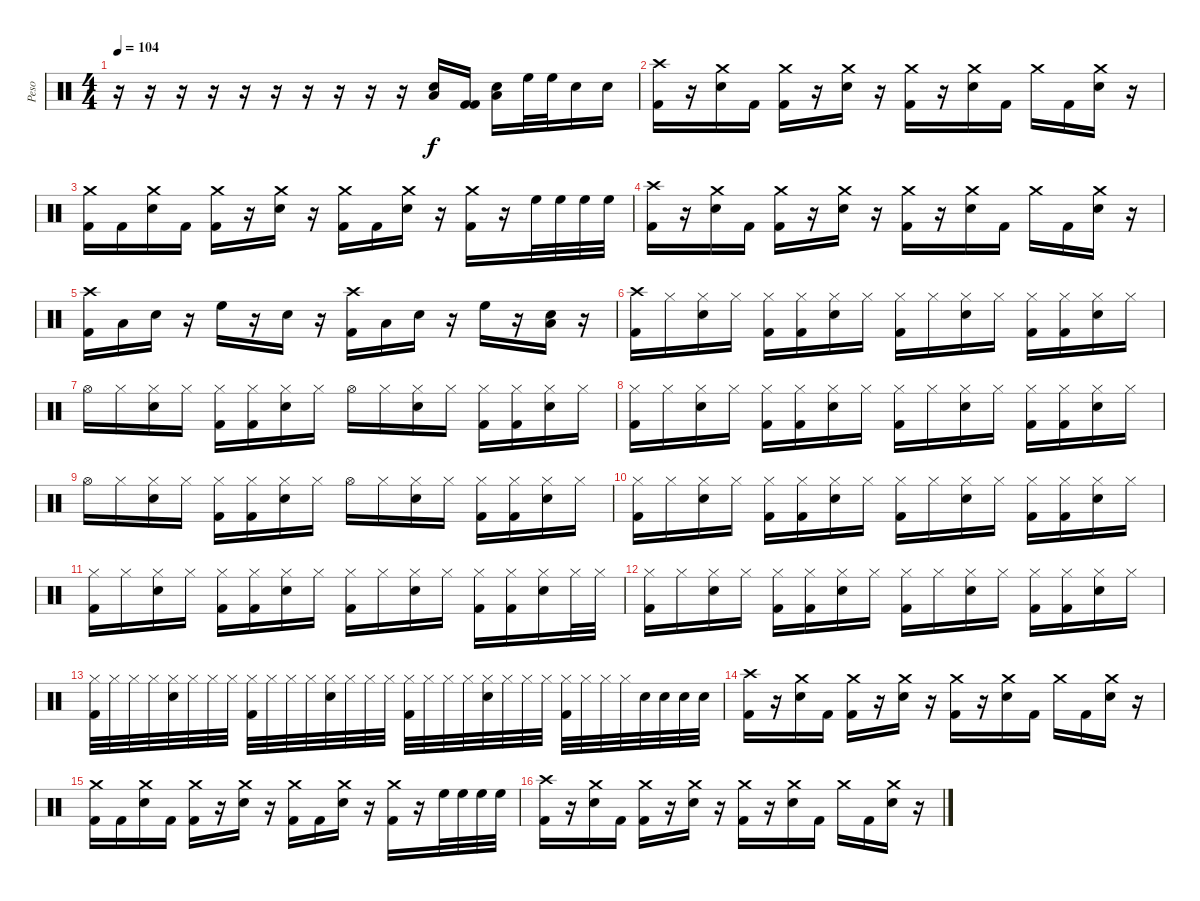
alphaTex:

\track ("Peso" "Peso") {instrument percussion}
\staff {score}
\articulation defaults
\ts (4 4)
\tempo 104
\clef neutral
\ks c
r.16{dy f} r.16 r.16 r.16 r.16 r.16 r.16 r.16 r.16 r.16 ("Low Floor Tom (hit)" "Snare (hit) 2").16 ("Kick (hit) 2" "Kick (hit) 2").16 ("Low Floor Tom (hit)" "Snare (hit) 2").16 "High Floor Tom (hit)".32 "High Floor Tom (hit)".32 "Snare (hit) 2".16 "Snare (hit) 2".16 |
("Crash high (hit)" "Kick (hit) 2").16 r.16 ("Crash medium (hit)" "Snare (hit) 2").16 "Kick (hit) 2".16 ("Crash medium (hit)" "Kick (hit) 2").16 r.16 ("Crash medium (hit)" "Snare (hit) 2").16 r.16 ("Crash medium (hit)" "Kick (hit) 2").16 r.16 ("Crash medium (hit)" "Snare (hit) 2").16 "Kick (hit) 2".16 "Crash medium (hit)".16 "Kick (hit) 2".16 ("Crash medium (hit)" "Snare (hit) 2").16 r.16 |
("Crash medium (hit)" "Kick (hit) 2").16 "Kick (hit) 2".16 ("Crash medium (hit)" "Snare (hit) 2").16 "Kick (hit) 2".16 ("Crash medium (hit)" "Kick (hit) 2").16 r.16 ("Crash medium (hit)" "Snare (hit) 2").16 r.16 ("Crash medium (hit)" "Kick (hit) 2").16 "Kick (hit) 2".16 ("Crash medium (hit)" "Snare (hit) 2").16 r.16 ("Crash medium (hit)" "Kick (hit) 2").16 r.16 "High Floor Tom (hit)".32 "High Floor Tom (hit)".32 "High Floor Tom (hit)".32 "High Floor Tom (hit)".32 |
("Crash high (hit)" "Kick (hit) 2").16 r.16 ("Crash medium (hit)" "Snare (hit) 2").16 "Kick (hit) 2".16 ("Crash medium (hit)" "Kick (hit) 2").16 r.16 ("Crash medium (hit)" "Snare (hit) 2").16 r.16 ("Crash medium (hit)" "Kick (hit) 2").16 r.16 ("Crash medium (hit)" "Snare (hit) 2").16 "Kick (hit) 2".16 "Crash medium (hit)".16 "Kick (hit) 2".16 ("Crash medium (hit)" "Snare (hit) 2").16 r.16 |
("Crash high (hit)" "Kick (hit) 2").16 "Low Floor Tom (hit)".16 "Snare (hit) 2".16 r.16 "High Floor Tom (hit)".16 r.16 "Snare (hit) 2".16 r.16 ("Crash high (hit)" "Kick (hit) 2").16 "Low Floor Tom (hit)".16 "Snare (hit) 2".16 r.16 "High Floor Tom (hit)".16 r.16 ("Low Floor Tom (hit)" "Snare (hit) 2").16 r.16 |
("Crash high (hit)" "Kick (hit) 2").16 "Hi-Hat (closed)".16 ("Hi-Hat (closed)" "Snare (hit) 2").16 "Hi-Hat (closed)".16 ("Hi-Hat (closed)" "Kick (hit) 2").16 ("Hi-Hat (closed)" "Kick (hit) 2").16 ("Hi-Hat (closed)" "Snare (hit) 2").16 "Hi-Hat (closed)".16 ("Hi-Hat (closed)" "Kick (hit) 2").16 "Hi-Hat (closed)".16 ("Hi-Hat (closed)" "Snare (hit) 2").16 "Hi-Hat (closed)".16 ("Hi-Hat (closed)" "Kick (hit) 2").16 ("Hi-Hat (closed)" "Kick (hit) 2").16 ("Hi-Hat (closed)" "Snare (hit) 2").16 "Hi-Hat (closed)".16 |
"Hi-Hat (open)".16 "Hi-Hat (closed)".16 ("Hi-Hat (closed)" "Snare (hit) 2").16 "Hi-Hat (closed)".16 ("Hi-Hat (closed)" "Kick (hit) 2").16 ("Hi-Hat (closed)" "Kick (hit) 2").16 ("Hi-Hat (closed)" "Snare (hit) 2").16 "Hi-Hat (closed)".16 "Hi-Hat (open)".16 "Hi-Hat (closed)".16 ("Hi-Hat (closed)" "Snare (hit) 2").16 "Hi-Hat (closed)".16 ("Hi-Hat (closed)" "Kick (hit) 2").16 ("Hi-Hat (closed)" "Kick (hit) 2").16 ("Hi-Hat (closed)" "Snare (hit) 2").16 "Hi-Hat (closed)".16 |
("Hi-Hat (closed)" "Kick (hit) 2").16 "Hi-Hat (closed)".16 ("Hi-Hat (closed)" "Snare (hit) 2").16 "Hi-Hat (closed)".16 ("Hi-Hat (closed)" "Kick (hit) 2").16 ("Hi-Hat (closed)" "Kick (hit) 2").16 ("Hi-Hat (closed)" "Snare (hit) 2").16 "Hi-Hat (closed)".16 ("Hi-Hat (closed)" "Kick (hit) 2").16 "Hi-Hat (closed)".16 ("Hi-Hat (closed)" "Snare (hit) 2").16 "Hi-Hat (closed)".16 ("Hi-Hat (closed)" "Kick (hit) 2").16 ("Hi-Hat (closed)" "Kick (hit) 2").16 ("Hi-Hat (closed)" "Snare (hit) 2").16 "Hi-Hat (closed)".16 |
"Hi-Hat (open)".16 "Hi-Hat (closed)".16 ("Hi-Hat (closed)" "Snare (hit) 2").16 "Hi-Hat (closed)".16 ("Hi-Hat (closed)" "Kick (hit) 2").16 ("Hi-Hat (closed)" "Kick (hit) 2").16 ("Hi-Hat (closed)" "Snare (hit) 2").16 "Hi-Hat (closed)".16 "Hi-Hat (open)".16 "Hi-Hat (closed)".16 ("Hi-Hat (closed)" "Snare (hit) 2").16 "Hi-Hat (closed)".16 ("Hi-Hat (closed)" "Kick (hit) 2").16 ("Hi-Hat (closed)" "Kick (hit) 2").16 ("Hi-Hat (closed)" "Snare (hit) 2").16 "Hi-Hat (closed)".16 |
("Hi-Hat (closed)" "Kick (hit) 2").16 "Hi-Hat (closed)".16 ("Hi-Hat (closed)" "Snare (hit) 2").16 "Hi-Hat (closed)".16 ("Hi-Hat (closed)" "Kick (hit) 2").16 ("Hi-Hat (closed)" "Kick (hit) 2").16 ("Hi-Hat (closed)" "Snare (hit) 2").16 "Hi-Hat (closed)".16 ("Hi-Hat (closed)" "Kick (hit) 2").16 "Hi-Hat (closed)".16 ("Hi-Hat (closed)" "Snare (hit) 2").16 "Hi-Hat (closed)".16 ("Hi-Hat (closed)" "Kick (hit) 2").16 ("Hi-Hat (closed)" "Kick (hit) 2").16 ("Hi-Hat (closed)" "Snare (hit) 2").16 "Hi-Hat (closed)".16 |
("Hi-Hat (closed)" "Kick (hit) 2").16 "Hi-Hat (closed)".16 ("Hi-Hat (closed)" "Snare (hit) 2").16 "Hi-Hat (closed)".16 ("Hi-Hat (closed)" "Kick (hit) 2").16 ("Hi-Hat (closed)" "Kick (hit) 2").16 ("Hi-Hat (closed)" "Snare (hit) 2").16 "Hi-Hat (closed)".16 ("Hi-Hat (closed)" "Kick (hit) 2").16 "Hi-Hat (closed)".16 ("Hi-Hat (closed)" "Snare (hit) 2").16 "Hi-Hat (closed)".16 ("Hi-Hat (closed)" "Kick (hit) 2").16 ("Hi-Hat (closed)" "Kick (hit) 2").16 ("Hi-Hat (closed)" "Snare (hit) 2").16 "Hi-Hat (closed)".32 "Hi-Hat (closed)".32 |
("Hi-Hat (closed)" "Kick (hit) 2").16 "Hi-Hat (closed)".16 ("Hi-Hat (closed)" "Snare (hit) 2").16 "Hi-Hat (closed)".16 ("Hi-Hat (closed)" "Kick (hit) 2").16 ("Hi-Hat (closed)" "Kick (hit) 2").16 ("Hi-Hat (closed)" "Snare (hit) 2").16 "Hi-Hat (closed)".16 ("Hi-Hat (closed)" "Kick (hit) 2").16 "Hi-Hat (closed)".16 ("Hi-Hat (closed)" "Snare (hit) 2").16 "Hi-Hat (closed)".16 ("Hi-Hat (closed)" "Kick (hit) 2").16 ("Hi-Hat (closed)" "Kick (hit) 2").16 ("Hi-Hat (closed)" "Snare (hit) 2").16 "Hi-Hat (closed)".16 |
("Hi-Hat (closed)" "Kick (hit) 2").32 "Hi-Hat (closed)".32 "Hi-Hat (closed)".32 "Hi-Hat (closed)".32 ("Hi-Hat (closed)" "Snare (hit) 2").32 "Hi-Hat (closed)".32 "Hi-Hat (closed)".32 "Hi-Hat (closed)".32 ("Hi-Hat (closed)" "Kick (hit) 2").32 "Hi-Hat (closed)".32 "Hi-Hat (closed)".32 "Hi-Hat (closed)".32 ("Hi-Hat (closed)" "Snare (hit) 2").32 "Hi-Hat (closed)".32 "Hi-Hat (closed)".32 "Hi-Hat (closed)".32 ("Hi-Hat (closed)" "Kick (hit) 2").32 "Hi-Hat (closed)".32 "Hi-Hat (closed)".32 "Hi-Hat (closed)".32 ("Hi-Hat (closed)" "Snare (hit) 2").32 "Hi-Hat (closed)".32 "Hi-Hat (closed)".32 "Hi-Hat (closed)".32 ("Hi-Hat (closed)" "Kick (hit) 2").32 "Hi-Hat (closed)".32 "Hi-Hat (closed)".32 "Hi-Hat (closed)".32 "Snare (hit) 2".32 "Snare (hit) 2".32 "Snare (hit) 2".32 "Snare (hit) 2".32 |
("Crash high (hit)" "Kick (hit) 2").16 r.16 ("Crash medium (hit)" "Snare (hit) 2").16 "Kick (hit) 2".16 ("Crash medium (hit)" "Kick (hit) 2").16 r.16 ("Crash medium (hit)" "Snare (hit) 2").16 r.16 ("Crash medium (hit)" "Kick (hit) 2").16 r.16 ("Crash medium (hit)" "Snare (hit) 2").16 "Kick (hit) 2".16 "Crash medium (hit)".16 "Kick (hit) 2".16 ("Crash medium (hit)" "Snare (hit) 2").16 r.16 |
("Crash medium (hit)" "Kick (hit) 2").16 "Kick (hit) 2".16 ("Crash medium (hit)" "Snare (hit) 2").16 "Kick (hit) 2".16 ("Crash medium (hit)" "Kick (hit) 2").16 r.16 ("Crash medium (hit)" "Snare (hit) 2").16 r.16 ("Crash medium (hit)" "Kick (hit) 2").16 "Kick (hit) 2".16 ("Crash medium (hit)" "Snare (hit) 2").16 r.16 ("Crash medium (hit)" "Kick (hit) 2").16 r.16 "High Floor Tom (hit)".32 "High Floor Tom (hit)".32 "High Floor Tom (hit)".32 "High Floor Tom (hit)".32 |
("Crash high (hit)" "Kick (hit) 2").16 r.16 ("Crash medium (hit)" "Snare (hit) 2").16 "Kick (hit) 2".16 ("Crash medium (hit)" "Kick (hit) 2").16 r.16 ("Crash medium (hit)" "Snare (hit) 2").16 r.16 ("Crash medium (hit)" "Kick (hit) 2").16 r.16 ("Crash medium (hit)" "Snare (hit) 2").16 "Kick (hit) 2".16 "Crash medium (hit)".16 "Kick (hit) 2".16 ("Crash medium (hit)" "Snare (hit) 2").16 r.16
